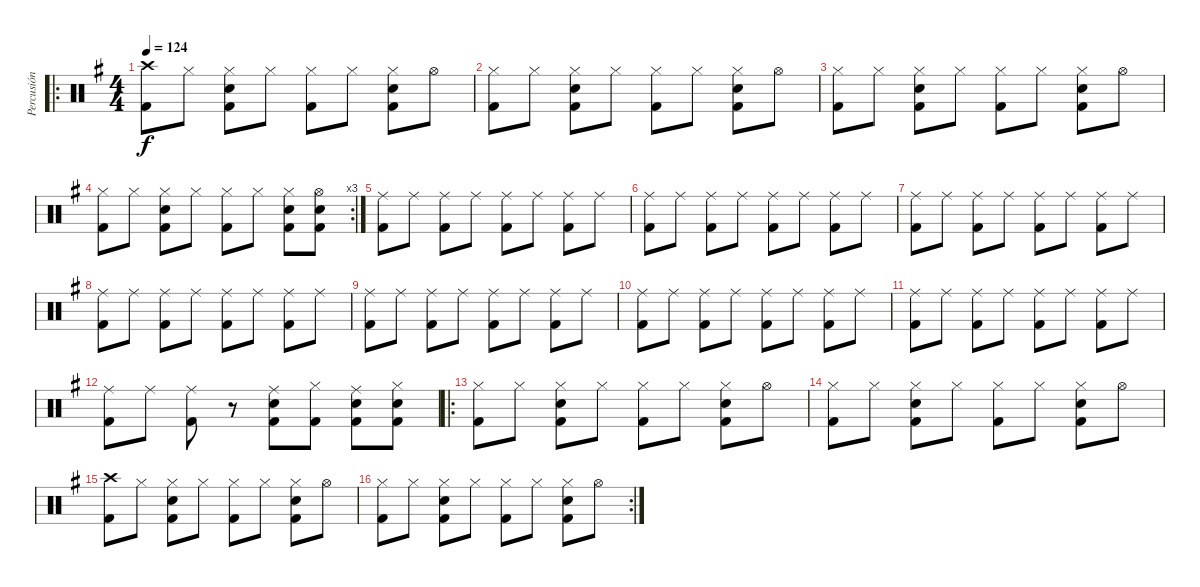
\track ("Percusión" "Percusión") {instrument percussion}
\staff {score}
\articulation defaults
\ro
\ts (4 4)
\tempo 124
\clef neutral
\ks g
("Crash high (hit)" "Kick (hit) 2").8{dy f} "Hi-Hat (closed)".8 ("Hi-Hat (closed)" "Electric Snare (hit)" "Kick (hit) 2").8 "Hi-Hat (closed)".8 ("Hi-Hat (closed)" "Kick (hit) 2").8 "Hi-Hat (closed)".8 ("Hi-Hat (closed)" "Electric Snare (hit)" "Kick (hit) 2").8 "Hi-Hat (open)".8 |
("Hi-Hat (closed)" "Kick (hit) 2").8 "Hi-Hat (closed)".8 ("Hi-Hat (closed)" "Electric Snare (hit)" "Kick (hit) 2").8 "Hi-Hat (closed)".8 ("Hi-Hat (closed)" "Kick (hit) 2").8 "Hi-Hat (closed)".8 ("Hi-Hat (closed)" "Electric Snare (hit)" "Kick (hit) 2").8 "Hi-Hat (open)".8 |
("Hi-Hat (closed)" "Kick (hit) 2").8 "Hi-Hat (closed)".8 ("Hi-Hat (closed)" "Electric Snare (hit)" "Kick (hit) 2").8 "Hi-Hat (closed)".8 ("Hi-Hat (closed)" "Kick (hit) 2").8 "Hi-Hat (closed)".8 ("Hi-Hat (closed)" "Electric Snare (hit)" "Kick (hit) 2").8 "Hi-Hat (open)".8 |
\rc 3
("Hi-Hat (closed)" "Kick (hit) 2").8 "Hi-Hat (closed)".8 ("Hi-Hat (closed)" "Electric Snare (hit)" "Kick (hit) 2").8 "Hi-Hat (closed)".8 ("Hi-Hat (closed)" "Kick (hit) 2").8 "Hi-Hat (closed)".8 ("Hi-Hat (closed)" "Electric Snare (hit)" "Kick (hit) 2").8 ("Hi-Hat (open)" "Electric Snare (hit)" "Kick (hit) 2").8 |
("Ride (middle)" "Kick (hit) 2").8 "Ride (middle)".8 ("Ride (middle)" "Kick (hit) 2").8 "Ride (middle)".8 ("Ride (middle)" "Kick (hit) 2").8 "Ride (middle)".8 ("Ride (middle)" "Kick (hit) 2").8 "Ride (middle)".8 |
("Ride (middle)" "Kick (hit) 2").8 "Ride (middle)".8 ("Ride (middle)" "Kick (hit) 2").8 "Ride (middle)".8 ("Ride (middle)" "Kick (hit) 2").8 "Ride (middle)".8 ("Ride (middle)" "Kick (hit) 2").8 "Ride (middle)".8 |
("Ride (middle)" "Kick (hit) 2").8 "Ride (middle)".8 ("Ride (middle)" "Kick (hit) 2").8 "Ride (middle)".8 ("Ride (middle)" "Kick (hit) 2").8 "Ride (middle)".8 ("Ride (middle)" "Kick (hit) 2").8 "Ride (middle)".8 |
("Ride (middle)" "Kick (hit) 2").8 "Ride (middle)".8 ("Ride (middle)" "Kick (hit) 2").8 "Ride (middle)".8 ("Ride (middle)" "Kick (hit) 2").8 "Ride (middle)".8 ("Ride (middle)" "Kick (hit) 2").8 "Ride (middle)".8 |
("Ride (middle)" "Kick (hit) 2").8 "Ride (middle)".8 ("Ride (middle)" "Kick (hit) 2").8 "Ride (middle)".8 ("Ride (middle)" "Kick (hit) 2").8 "Ride (middle)".8 ("Ride (middle)" "Kick (hit) 2").8 "Ride (middle)".8 |
("Ride (middle)" "Kick (hit) 2").8 "Ride (middle)".8 ("Ride (middle)" "Kick (hit) 2").8 "Ride (middle)".8 ("Ride (middle)" "Kick (hit) 2").8 "Ride (middle)".8 ("Ride (middle)" "Kick (hit) 2").8 "Ride (middle)".8 |
("Ride (middle)" "Kick (hit) 2").8 "Ride (middle)".8 ("Ride (middle)" "Kick (hit) 2").8 "Ride (middle)".8 ("Ride (middle)" "Kick (hit) 2").8 "Ride (middle)".8 ("Ride (middle)" "Kick (hit) 2").8 "Ride (middle)".8 |
("Ride (middle)" "Kick (hit) 2").8 "Ride (middle)".8 ("Ride (middle)" "Kick (hit) 2").8 r.8 ("Ride (middle)" "Electric Snare (hit)" "Kick (hit) 2").8 ("Hi-Hat (closed)" "Kick (hit) 2").8 ("Ride (middle)" "Electric Snare (hit)" "Kick (hit) 2").8 ("Hi-Hat (closed)" "Electric Snare (hit)" "Kick (hit) 2").8 |
\ro
("Hi-Hat (closed)" "Kick (hit) 2").8 "Hi-Hat (closed)".8 ("Hi-Hat (closed)" "Electric Snare (hit)" "Kick (hit) 2").8 "Hi-Hat (closed)".8 ("Hi-Hat (closed)" "Kick (hit) 2").8 "Hi-Hat (closed)".8 ("Hi-Hat (closed)" "Electric Snare (hit)" "Kick (hit) 2").8 "Hi-Hat (open)".8 |
("Hi-Hat (closed)" "Kick (hit) 2").8 "Hi-Hat (closed)".8 ("Hi-Hat (closed)" "Electric Snare (hit)" "Kick (hit) 2").8 "Hi-Hat (closed)".8 ("Hi-Hat (closed)" "Kick (hit) 2").8 "Hi-Hat (closed)".8 ("Hi-Hat (closed)" "Electric Snare (hit)" "Kick (hit) 2").8 "Hi-Hat (open)".8 |
("Crash high (hit)" "Kick (hit) 2").8 "Hi-Hat (closed)".8 ("Hi-Hat (closed)" "Electric Snare (hit)" "Kick (hit) 2").8 "Hi-Hat (closed)".8 ("Hi-Hat (closed)" "Kick (hit) 2").8 "Hi-Hat (closed)".8 ("Hi-Hat (closed)" "Electric Snare (hit)" "Kick (hit) 2").8 "Hi-Hat (open)".8 |
\rc 2
("Hi-Hat (closed)" "Kick (hit) 2").8 "Hi-Hat (closed)".8 ("Hi-Hat (closed)" "Electric Snare (hit)" "Kick (hit) 2").8 "Hi-Hat (closed)".8 ("Hi-Hat (closed)" "Kick (hit) 2").8 "Hi-Hat (closed)".8 ("Hi-Hat (closed)" "Electric Snare (hit)" "Kick (hit) 2").8 "Hi-Hat (open)".8
